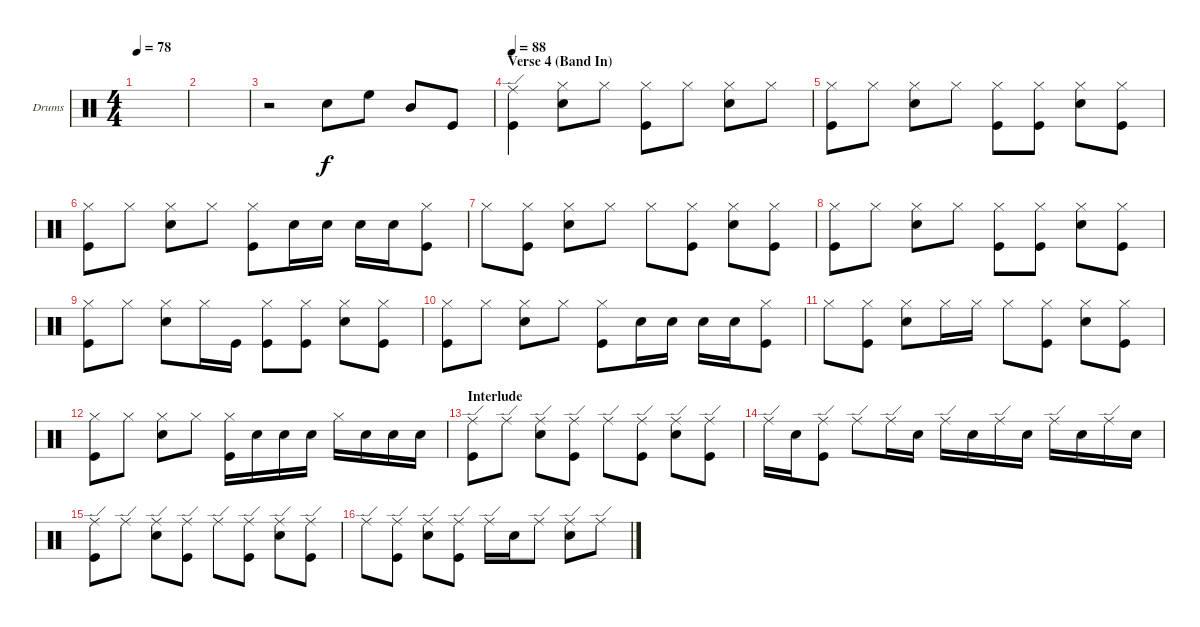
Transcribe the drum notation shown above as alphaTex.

\defaultSystemsLayout 4
\bracketExtendMode groupsimilarinstruments
\firstSystemTrackNameOrientation horizontal
\otherSystemsTrackNameOrientation horizontal
\track ("Drumkit (Bonham)" "Drums") {instrument percussion}
\staff {score}
\articulation defaults
\ts (4 4)
\tempo 78
\clef neutral
\scale
0.333333
\ks c
|
\scale
0.333333 |
\scale
0.333333 r.2 "Snare (hit) 2".8 "High Floor Tom (hit)".8 "Mid Tom (hit)".8 "Kick (hit)".8 |
\section ("" "Verse 4 (Band In)")
\tempo 88
\scale
0.333333 ("Ride (edge)" "Kick (hit)").4 ("Hi-Hat (closed)" "Snare (hit) 2").8 "Hi-Hat (closed)".8 ("Hi-Hat (closed)" "Kick (hit)").8 "Hi-Hat (closed)".8 ("Hi-Hat (closed)" "Snare (hit) 2").8 "Hi-Hat (closed)".8 |
\scale
0.333333 ("Hi-Hat (closed)" "Kick (hit)").8 "Hi-Hat (closed)".8 ("Hi-Hat (closed)" "Snare (hit) 2").8 "Hi-Hat (closed)".8 ("Hi-Hat (closed)" "Kick (hit)").8 ("Hi-Hat (closed)" "Kick (hit)").8 ("Hi-Hat (closed)" "Snare (hit) 2").8 ("Hi-Hat (closed)" "Kick (hit)").8 |
\scale
0.333333 ("Hi-Hat (closed)" "Kick (hit)").8 "Hi-Hat (closed)".8 ("Hi-Hat (closed)" "Snare (hit) 2").8 "Hi-Hat (closed)".8 ("Hi-Hat (closed)" "Kick (hit)").8 "Snare (hit) 2".16 "Snare (hit) 2".16 "Snare (hit) 2".16 "Snare (hit) 2".16 ("Hi-Hat (closed)" "Kick (hit)").8 |
\scale
0.333333 "Hi-Hat (closed)".8 ("Hi-Hat (closed)" "Kick (hit)").8 ("Hi-Hat (closed)" "Snare (hit) 2").8 "Hi-Hat (closed)".8 "Hi-Hat (closed)".8 ("Hi-Hat (closed)" "Kick (hit)").8 ("Hi-Hat (closed)" "Snare (hit) 2").8 ("Hi-Hat (closed)" "Kick (hit)").8 |
\scale
0.333333 ("Hi-Hat (closed)" "Kick (hit)").8 "Hi-Hat (closed)".8 ("Hi-Hat (closed)" "Snare (hit) 2").8 "Hi-Hat (closed)".8 ("Hi-Hat (closed)" "Kick (hit)").8 ("Hi-Hat (closed)" "Kick (hit)").8 ("Hi-Hat (closed)" "Snare (hit) 2").8 ("Hi-Hat (closed)" "Kick (hit)").8 |
\scale
0.333333 ("Hi-Hat (closed)" "Kick (hit)").8 "Hi-Hat (closed)".8 ("Hi-Hat (closed)" "Snare (hit) 2").8 "Hi-Hat (closed)".16 "Kick (hit)".16 ("Hi-Hat (closed)" "Kick (hit)").8 ("Hi-Hat (closed)" "Kick (hit)").8 ("Hi-Hat (closed)" "Snare (hit) 2").8 ("Hi-Hat (closed)" "Kick (hit)").8 |
\scale
0.333333 ("Hi-Hat (closed)" "Kick (hit)").8 "Hi-Hat (closed)".8 ("Hi-Hat (closed)" "Snare (hit) 2").8 "Hi-Hat (closed)".8 ("Hi-Hat (closed)" "Kick (hit)").8 "Snare (hit) 2".16 "Snare (hit) 2".16 "Snare (hit) 2".16 "Snare (hit) 2".16 ("Hi-Hat (closed)" "Kick (hit)").8 |
\scale
0.333333 "Hi-Hat (closed)".8 ("Hi-Hat (closed)" "Kick (hit)").8 ("Hi-Hat (closed)" "Snare (hit) 2").8 "Hi-Hat (closed)".16 "Hi-Hat (closed)".16 "Hi-Hat (closed)".8 ("Hi-Hat (closed)" "Kick (hit)").8 ("Hi-Hat (closed)" "Snare (hit) 2").8 ("Hi-Hat (closed)" "Kick (hit)").8 |
\scale
0.333333 ("Hi-Hat (closed)" "Kick (hit)").8 "Hi-Hat (closed)".8 ("Hi-Hat (closed)" "Snare (hit) 2").8 "Hi-Hat (closed)".8 ("Hi-Hat (closed)" "Kick (hit)").16 "Snare (hit) 2".16 "Snare (hit) 2".16 "Snare (hit) 2".16 "Hi-Hat (closed)".16 "Snare (hit) 2".16 "Snare (hit) 2".16 "Snare (hit) 2".16 |
\section ("" "Interlude")
\scale
0.333333 ("Ride (edge)" "Kick (hit)").8 "Ride (edge)".8 ("Ride (edge)" "Snare (hit) 2").8 ("Ride (edge)" "Kick (hit)").8 "Ride (edge)".8 ("Ride (edge)" "Kick (hit)").8 ("Ride (edge)" "Snare (hit) 2").8 ("Ride (edge)" "Kick (hit)").8 |
\scale
0.333333 "Ride (edge)".16 "Snare (hit) 2".16 ("Ride (edge)" "Kick (hit)").8 "Ride (edge)".8 "Ride (edge)".16 "Snare (hit) 2".16 "Ride (edge)".16 "Snare (hit) 2".16 "Ride (edge)".16 "Snare (hit) 2".16 "Ride (edge)".16 "Snare (hit) 2".16 "Ride (edge)".16 "Snare (hit) 2".16 |
\scale
0.333333 ("Ride (edge)" "Kick (hit)").8 "Ride (edge)".8 ("Ride (edge)" "Snare (hit) 2").8 ("Ride (edge)" "Kick (hit)").8 "Ride (edge)".8 ("Ride (edge)" "Kick (hit)").8 ("Ride (edge)" "Snare (hit) 2").8 ("Ride (edge)" "Kick (hit)").8 |
\scale
0.333333 "Ride (edge)".8 ("Ride (edge)" "Kick (hit)").8 ("Ride (edge)" "Snare (hit) 2").8 ("Ride (edge)" "Kick (hit)").8 "Ride (edge)".16 "Snare (hit) 2".16 "Ride (edge)".8 ("Ride (edge)" "Snare (hit) 2").8 "Ride (edge)".8
